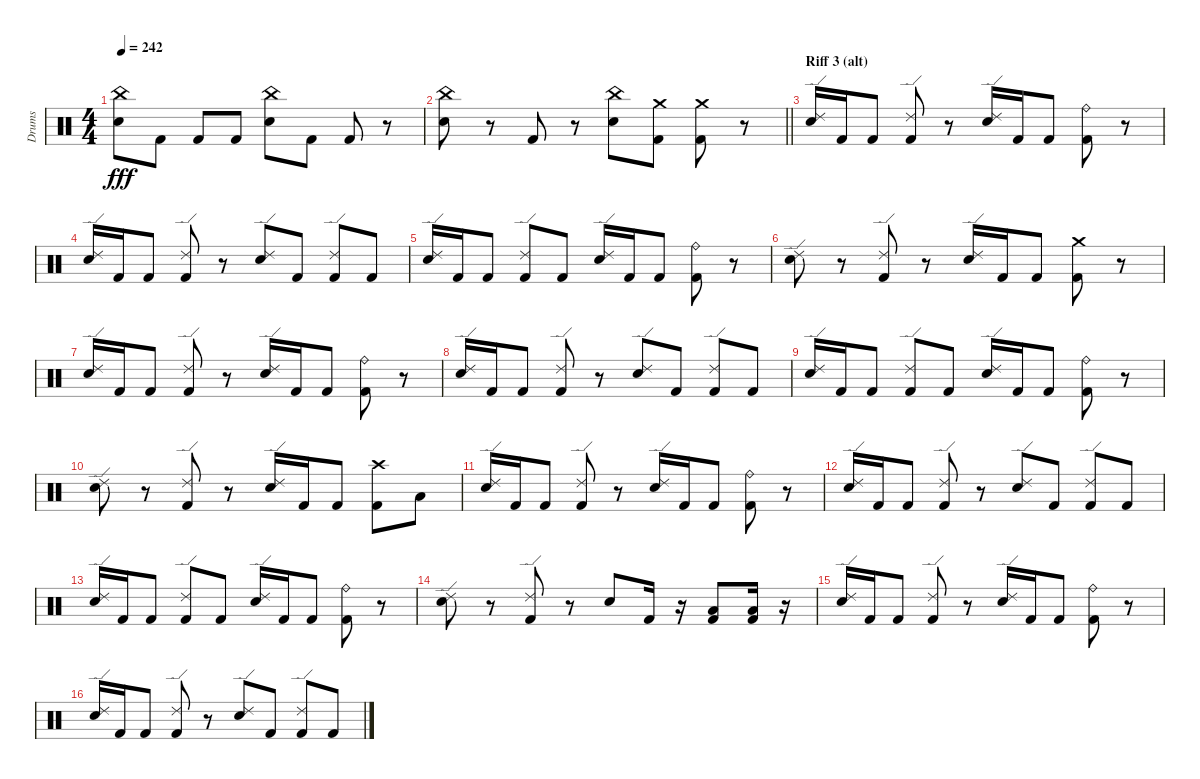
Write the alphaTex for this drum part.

\track ("Drums" "Drums") {instrument percussion}
\staff {score}
\articulation defaults
\ts (4 4)
\tempo 242
\clef neutral
\ks c
("Snare (hit) 2" "China (hit)").8{dy fff} "Kick (hit) 2".8 "Kick (hit) 2".8 "Kick (hit) 2".8 ("Snare (hit) 2" "China (hit)").8 "Kick (hit) 2".8 "Kick (hit) 2".8 r.8 |
\barLineRight lightlight
("Snare (hit) 2" "China (hit)").8 r.8 "Kick (hit) 2".8 r.8 ("Snare (hit) 2" "China (hit)").8 ("Kick (hit) 2" "Crash medium (hit)").8 ("Kick (hit) 2" "Crash medium (hit)").8 r.8 |
\section ("" "Riff 3 (alt)")
("Snare (hit) 2" "Ride (edge) 2").16 "Kick (hit) 2".16 "Kick (hit) 2".8 ("Kick (hit) 2" "Ride (edge) 2").8 r.8 ("Snare (hit) 2" "Ride (edge) 2").16 "Kick (hit) 2".16 "Kick (hit) 2".8 ("Kick (hit) 2" "Ride (bell)").8 r.8 |
("Snare (hit) 2" "Ride (edge) 2").16 "Kick (hit) 2".16 "Kick (hit) 2".8 ("Kick (hit) 2" "Ride (edge) 2").8 r.8 ("Snare (hit) 2" "Ride (edge) 2").8 "Kick (hit) 2".8 ("Kick (hit) 2" "Ride (edge) 2").8 "Kick (hit) 2".8 |
("Snare (hit) 2" "Ride (edge) 2").16 "Kick (hit) 2".16 "Kick (hit) 2".8 ("Kick (hit) 2" "Ride (edge) 2").8 "Kick (hit) 2".8 ("Snare (hit) 2" "Ride (edge) 2").16 "Kick (hit) 2".16 "Kick (hit) 2".8 ("Kick (hit) 2" "Ride (bell)").8 r.8 |
("Snare (hit) 2" "Ride (edge) 2").8 r.8 ("Kick (hit) 2" "Ride (edge) 2").8 r.8 ("Snare (hit) 2" "Ride (edge) 2").16 "Kick (hit) 2".16 "Kick (hit) 2".8 ("Kick (hit) 2" "Crash medium (hit)").8 r.8 |
("Snare (hit) 2" "Ride (edge) 2").16 "Kick (hit) 2".16 "Kick (hit) 2".8 ("Kick (hit) 2" "Ride (edge) 2").8 r.8 ("Snare (hit) 2" "Ride (edge) 2").16 "Kick (hit) 2".16 "Kick (hit) 2".8 ("Kick (hit) 2" "Ride (bell)").8 r.8 |
("Snare (hit) 2" "Ride (edge) 2").16 "Kick (hit) 2".16 "Kick (hit) 2".8 ("Kick (hit) 2" "Ride (edge) 2").8 r.8 ("Snare (hit) 2" "Ride (edge) 2").8 "Kick (hit) 2".8 ("Kick (hit) 2" "Ride (edge) 2").8 "Kick (hit) 2".8 |
("Snare (hit) 2" "Ride (edge) 2").16 "Kick (hit) 2".16 "Kick (hit) 2".8 ("Kick (hit) 2" "Ride (edge) 2").8 "Kick (hit) 2".8 ("Snare (hit) 2" "Ride (edge) 2").16 "Kick (hit) 2".16 "Kick (hit) 2".8 ("Kick (hit) 2" "Ride (bell)").8 r.8 |
("Snare (hit) 2" "Ride (edge) 2").8 r.8 ("Kick (hit) 2" "Ride (edge) 2").8 r.8 ("Snare (hit) 2" "Ride (edge) 2").16 "Kick (hit) 2".16 "Kick (hit) 2".8 ("Kick (hit) 2" "Crash high (hit)").8 "Low Tom (hit)".8 |
("Snare (hit) 2" "Ride (edge) 2").16 "Kick (hit) 2".16 "Kick (hit) 2".8 ("Kick (hit) 2" "Ride (edge) 2").8 r.8 ("Snare (hit) 2" "Ride (edge) 2").16 "Kick (hit) 2".16 "Kick (hit) 2".8 ("Kick (hit) 2" "Ride (bell)").8 r.8 |
("Snare (hit) 2" "Ride (edge) 2").16 "Kick (hit) 2".16 "Kick (hit) 2".8 ("Kick (hit) 2" "Ride (edge) 2").8 r.8 ("Snare (hit) 2" "Ride (edge) 2").8 "Kick (hit) 2".8 ("Kick (hit) 2" "Ride (edge) 2").8 "Kick (hit) 2".8 |
("Snare (hit) 2" "Ride (edge) 2").16 "Kick (hit) 2".16 "Kick (hit) 2".8 ("Kick (hit) 2" "Ride (edge) 2").8 "Kick (hit) 2".8 ("Snare (hit) 2" "Ride (edge) 2").16 "Kick (hit) 2".16 "Kick (hit) 2".8 ("Kick (hit) 2" "Ride (bell)").8 r.8 |
("Snare (hit) 2" "Ride (edge) 2").8 r.8 ("Kick (hit) 2" "Ride (edge) 2").8 r.8 "Snare (hit) 2".8 "Kick (hit) 2".16 r.16 ("Kick (hit) 2" "Low Floor Tom (hit)").8 ("Kick (hit) 2" "Low Floor Tom (hit)").16 r.16 |
("Snare (hit) 2" "Ride (edge) 2").16 "Kick (hit) 2".16 "Kick (hit) 2".8 ("Kick (hit) 2" "Ride (edge) 2").8 r.8 ("Snare (hit) 2" "Ride (edge) 2").16 "Kick (hit) 2".16 "Kick (hit) 2".8 ("Kick (hit) 2" "Ride (bell)").8 r.8 |
("Snare (hit) 2" "Ride (edge) 2").16 "Kick (hit) 2".16 "Kick (hit) 2".8 ("Kick (hit) 2" "Ride (edge) 2").8 r.8 ("Snare (hit) 2" "Ride (edge) 2").8 "Kick (hit) 2".8 ("Kick (hit) 2" "Ride (edge) 2").8 "Kick (hit) 2".8
